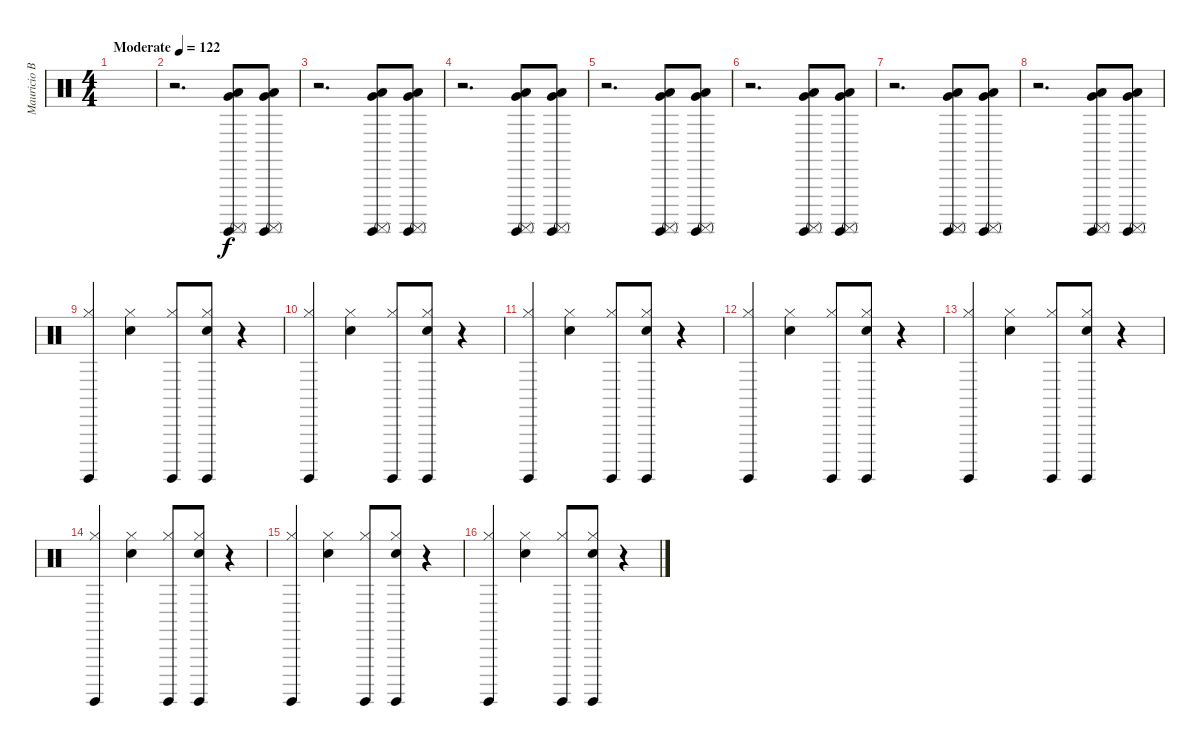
\track ("Mauricio Basualto" "Mauricio B") {instrument percussion}
\staff {score}
\articulation defaults
\ts (4 4)
\tempo (122 "Moderate")
\clef neutral
\ks c
|
r.2{d} ("Surdo (mute)" "Surdo (hit)" "Low Tom (hit)" "Very Low Tom (hit)").8 ("Surdo (mute)" "Surdo (hit)" "Low Tom (hit)" "Very Low Tom (hit)").8 |
r.2{d} ("Surdo (mute)" "Surdo (hit)" "Low Tom (hit)" "Very Low Tom (hit)").8 ("Surdo (mute)" "Surdo (hit)" "Low Tom (hit)" "Very Low Tom (hit)").8 |
r.2{d} ("Surdo (mute)" "Surdo (hit)" "Low Tom (hit)" "Very Low Tom (hit)").8 ("Surdo (mute)" "Surdo (hit)" "Low Tom (hit)" "Very Low Tom (hit)").8 |
r.2{d} ("Surdo (mute)" "Surdo (hit)" "Low Tom (hit)" "Very Low Tom (hit)").8 ("Surdo (mute)" "Surdo (hit)" "Low Tom (hit)" "Very Low Tom (hit)").8 |
r.2{d} ("Surdo (mute)" "Surdo (hit)" "Low Tom (hit)" "Very Low Tom (hit)").8 ("Surdo (mute)" "Surdo (hit)" "Low Tom (hit)" "Very Low Tom (hit)").8 |
r.2{d} ("Surdo (mute)" "Surdo (hit)" "Low Tom (hit)" "Very Low Tom (hit)").8 ("Surdo (mute)" "Surdo (hit)" "Low Tom (hit)" "Very Low Tom (hit)").8 |
r.2{d} ("Surdo (mute)" "Surdo (hit)" "Low Tom (hit)" "Very Low Tom (hit)").8 ("Surdo (mute)" "Surdo (hit)" "Low Tom (hit)" "Very Low Tom (hit)").8 |
("Surdo (hit)" "Hi-Hat (closed)").4 ("Hi-Hat (closed)" "Snare (hit) 2").4 ("Surdo (hit)" "Hi-Hat (closed)").8 ("Surdo (hit)" "Hi-Hat (closed)" "Snare (hit) 2").8 r.4 |
("Surdo (hit)" "Hi-Hat (closed)").4 ("Hi-Hat (closed)" "Snare (hit) 2").4 ("Surdo (hit)" "Hi-Hat (closed)").8 ("Surdo (hit)" "Hi-Hat (closed)" "Snare (hit) 2").8 r.4 |
("Surdo (hit)" "Hi-Hat (closed)").4 ("Hi-Hat (closed)" "Snare (hit) 2").4 ("Surdo (hit)" "Hi-Hat (closed)").8 ("Surdo (hit)" "Hi-Hat (closed)" "Snare (hit) 2").8 r.4 |
("Surdo (hit)" "Hi-Hat (closed)").4 ("Hi-Hat (closed)" "Snare (hit) 2").4 ("Surdo (hit)" "Hi-Hat (closed)").8 ("Surdo (hit)" "Hi-Hat (closed)" "Snare (hit) 2").8 r.4 |
("Surdo (hit)" "Hi-Hat (closed)").4 ("Hi-Hat (closed)" "Snare (hit) 2").4 ("Surdo (hit)" "Hi-Hat (closed)").8 ("Surdo (hit)" "Hi-Hat (closed)" "Snare (hit) 2").8 r.4 |
("Surdo (hit)" "Hi-Hat (closed)").4 ("Hi-Hat (closed)" "Snare (hit) 2").4 ("Surdo (hit)" "Hi-Hat (closed)").8 ("Surdo (hit)" "Hi-Hat (closed)" "Snare (hit) 2").8 r.4 |
("Surdo (hit)" "Hi-Hat (closed)").4 ("Hi-Hat (closed)" "Snare (hit) 2").4 ("Surdo (hit)" "Hi-Hat (closed)").8 ("Surdo (hit)" "Hi-Hat (closed)" "Snare (hit) 2").8 r.4 |
("Surdo (hit)" "Hi-Hat (closed)").4 ("Hi-Hat (closed)" "Snare (hit) 2").4 ("Surdo (hit)" "Hi-Hat (closed)").8 ("Surdo (hit)" "Hi-Hat (closed)" "Snare (hit) 2").8 r.4
